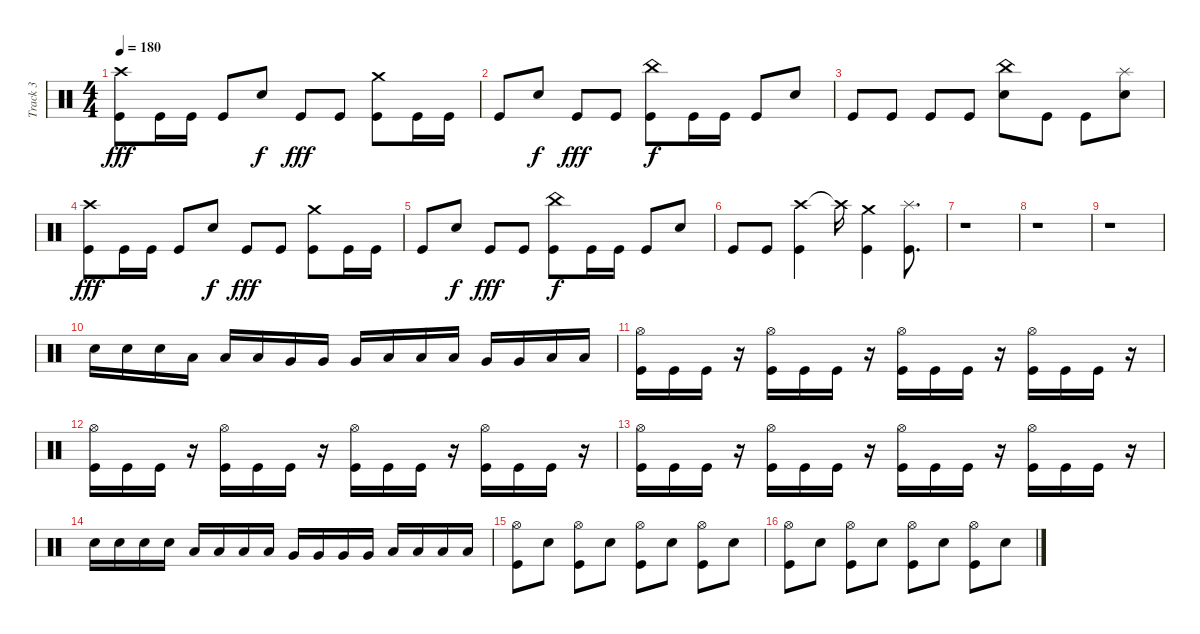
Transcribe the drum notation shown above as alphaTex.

\track ("Track 3" "Track 3") {instrument percussion}
\staff {score}
\articulation defaults
\ts (4 4)
\tempo 180
\clef neutral
\ks c
("Crash high (hit)" "Kick (hit)").8{dy fff} "Kick (hit)".16 "Kick (hit)".16 "Kick (hit)".8 "Electric Snare (hit)".8{dy f} "Kick (hit)".8{dy fff} "Kick (hit)".8 ("Crash medium (hit)" "Kick (hit)").8 "Kick (hit)".16 "Kick (hit)".16 |
"Kick (hit)".8 "Electric Snare (hit)".8{dy f} "Kick (hit)".8{dy fff} "Kick (hit)".8 ("China (hit)" "Kick (hit)").8{dy f} "Kick (hit)".16 "Kick (hit)".16 "Kick (hit)".8 "Electric Snare (hit)".8 |
"Kick (hit)".8 "Kick (hit)".8 "Kick (hit)".8 "Kick (hit)".8 ("China (hit)" "Electric Snare (hit)").8 "Kick (hit)".8 "Kick (hit)".8 ("Splash (hit)" "Electric Snare (hit)").8 |
("Crash high (hit)" "Kick (hit)").8{dy fff} "Kick (hit)".16 "Kick (hit)".16 "Kick (hit)".8 "Electric Snare (hit)".8{dy f} "Kick (hit)".8{dy fff} "Kick (hit)".8 ("Crash medium (hit)" "Kick (hit)").8 "Kick (hit)".16 "Kick (hit)".16 |
"Kick (hit)".8 "Electric Snare (hit)".8{dy f} "Kick (hit)".8{dy fff} "Kick (hit)".8 ("China (hit)" "Kick (hit)").8{dy f} "Kick (hit)".16 "Kick (hit)".16 "Kick (hit)".8 "Electric Snare (hit)".8 |
"Kick (hit)".8 "Kick (hit)".8 ("Crash high (hit)" "Kick (hit)").4 "Crash high (hit)"{t}.16 ("Crash medium (hit)" "Kick (hit)").4 ("Splash (hit)" "Kick (hit)").8{d} |
r.1 |
r.1 |
r.1 |
"Electric Snare (hit)".16 "Electric Snare (hit)".16 "Electric Snare (hit)".16 "Low Tom (hit)".16 "Low Tom (hit)".16 "Low Tom (hit)".16 "Very Low Tom (hit)".16 "Very Low Tom (hit)".16 "Very Low Tom (hit)".16 "Low Tom (hit)".16 "Low Tom (hit)".16 "Low Tom (hit)".16 "Very Low Tom (hit)".16 "Very Low Tom (hit)".16 "Low Floor Tom (hit)".16 "Low Floor Tom (hit)".16 |
("Hi-Hat (open)" "Kick (hit)").16 "Kick (hit)".16 "Kick (hit)".16 r.16 ("Hi-Hat (open)" "Kick (hit)").16 "Kick (hit)".16 "Kick (hit)".16 r.16 ("Hi-Hat (open)" "Kick (hit)").16 "Kick (hit)".16 "Kick (hit)".16 r.16 ("Hi-Hat (open)" "Kick (hit)").16 "Kick (hit)".16 "Kick (hit)".16 r.16 |
("Hi-Hat (open)" "Kick (hit)").16 "Kick (hit)".16 "Kick (hit)".16 r.16 ("Hi-Hat (open)" "Kick (hit)").16 "Kick (hit)".16 "Kick (hit)".16 r.16 ("Hi-Hat (open)" "Kick (hit)").16 "Kick (hit)".16 "Kick (hit)".16 r.16 ("Hi-Hat (open)" "Kick (hit)").16 "Kick (hit)".16 "Kick (hit)".16 r.16 |
("Hi-Hat (open)" "Kick (hit)").16 "Kick (hit)".16 "Kick (hit)".16 r.16 ("Hi-Hat (open)" "Kick (hit)").16 "Kick (hit)".16 "Kick (hit)".16 r.16 ("Hi-Hat (open)" "Kick (hit)").16 "Kick (hit)".16 "Kick (hit)".16 r.16 ("Hi-Hat (open)" "Kick (hit)").16 "Kick (hit)".16 "Kick (hit)".16 r.16 |
"Electric Snare (hit)".16 "Electric Snare (hit)".16 "Electric Snare (hit)".16 "Electric Snare (hit)".16 "Low Tom (hit)".16 "Low Tom (hit)".16 "Low Tom (hit)".16 "Low Tom (hit)".16 "Very Low Tom (hit)".16 "Very Low Tom (hit)".16 "Very Low Tom (hit)".16 "Very Low Tom (hit)".16 "Low Floor Tom (hit)".16 "Low Floor Tom (hit)".16 "Low Floor Tom (hit)".16 "Low Floor Tom (hit)".16 |
("Hi-Hat (open)" "Kick (hit)").8 "Electric Snare (hit)".8 ("Hi-Hat (open)" "Kick (hit)").8 "Electric Snare (hit)".8 ("Hi-Hat (open)" "Kick (hit)").8 "Electric Snare (hit)".8 ("Hi-Hat (open)" "Kick (hit)").8 "Electric Snare (hit)".8 |
("Hi-Hat (open)" "Kick (hit)").8 "Electric Snare (hit)".8 ("Hi-Hat (open)" "Kick (hit)").8 "Electric Snare (hit)".8 ("Hi-Hat (open)" "Kick (hit)").8 "Electric Snare (hit)".8 ("Hi-Hat (open)" "Kick (hit)").8 "Electric Snare (hit)".8
